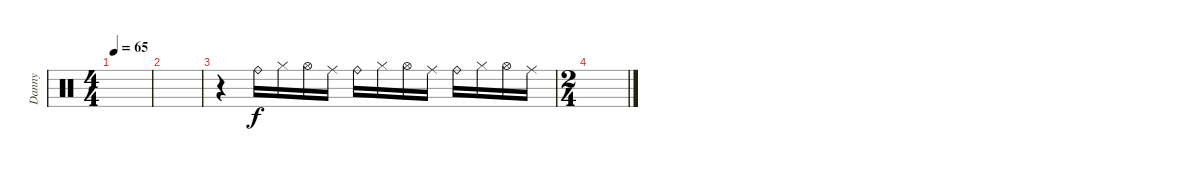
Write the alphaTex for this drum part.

\track ("Danny" "Danny") {instrument percussion}
\staff {score}
\articulation defaults
\ts (4 4)
\tempo 65
\clef neutral
\ks c
|
|
r.4 "Ride (bell)".16 "Hi-Hat (closed)".16 "Hi-Hat (open)".16 "Ride (middle)".16 "Ride (bell)".16 "Hi-Hat (closed)".16 "Hi-Hat (open)".16 "Ride (middle)".16 "Ride (bell)".16 "Hi-Hat (closed)".16 "Hi-Hat (open)".16 "Ride (middle)".16 |
\ts (2 4)
